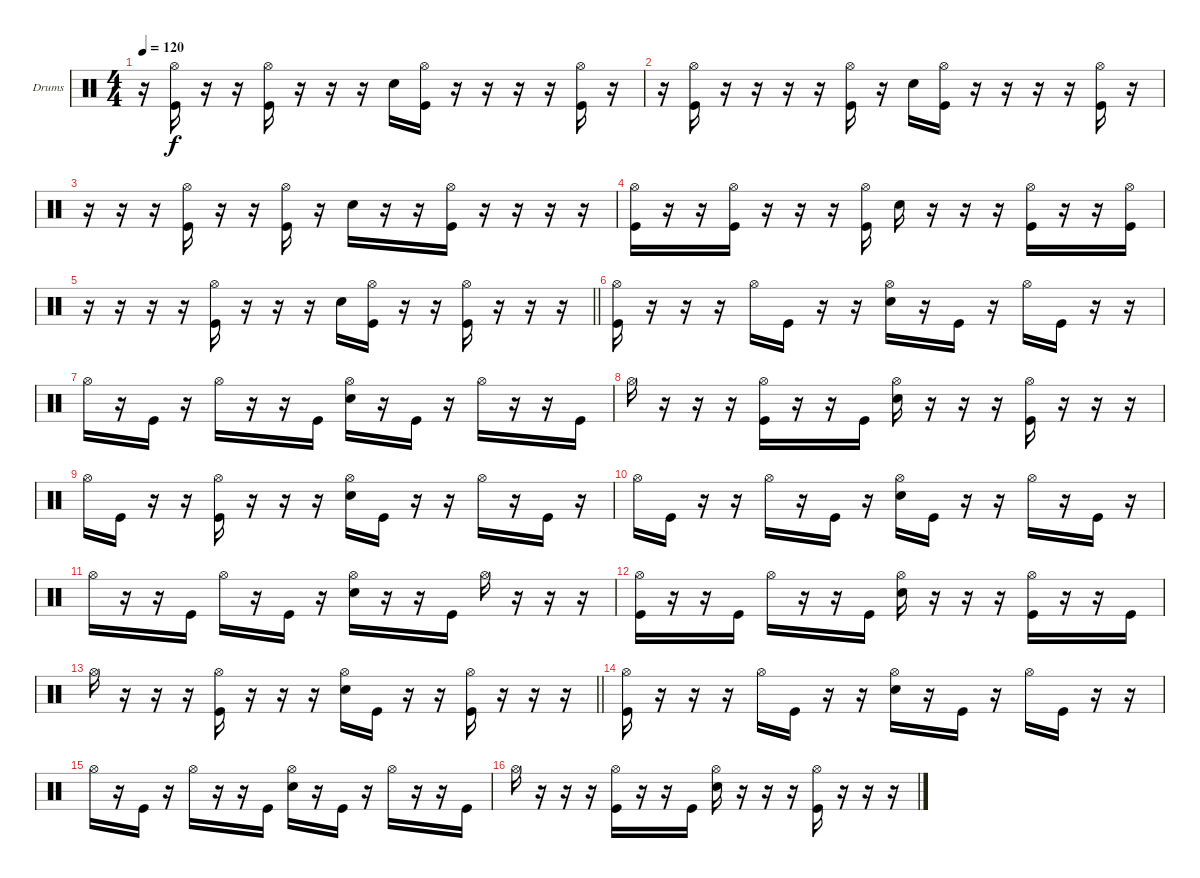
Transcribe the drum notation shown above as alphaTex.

\bracketExtendMode groupsimilarinstruments
\firstSystemTrackNameOrientation horizontal
\otherSystemsTrackNameOrientation horizontal
\track ("Drumkit" "Drums") {instrument percussion}
\staff {score}
\articulation defaults
\ts (4 4)
\tempo 120
\clef neutral
\ks c
r.16{dy f} ("Hi-Hat (open)" "Kick (hit)").16 r.16 r.16 ("Hi-Hat (open)" "Kick (hit)").16 r.16 r.16 r.16 "Snare (hit) 2".16 ("Hi-Hat (open)" "Kick (hit)").16 r.16 r.16 r.16 r.16 ("Hi-Hat (open)" "Kick (hit)").16 r.16 |
r.16 ("Hi-Hat (open)" "Kick (hit)").16 r.16 r.16 r.16 r.16 ("Hi-Hat (open)" "Kick (hit)").16 r.16 "Snare (hit) 2".16 ("Hi-Hat (open)" "Kick (hit)").16 r.16 r.16 r.16 r.16 ("Hi-Hat (open)" "Kick (hit)").16 r.16 |
r.16 r.16 r.16 ("Hi-Hat (open)" "Kick (hit)").16 r.16 r.16 ("Hi-Hat (open)" "Kick (hit)").16 r.16 "Snare (hit) 2".16 r.16 r.16 ("Hi-Hat (open)" "Kick (hit)").16 r.16 r.16 r.16 r.16 |
("Hi-Hat (open)" "Kick (hit)").16 r.16 r.16 ("Hi-Hat (open)" "Kick (hit)").16 r.16 r.16 r.16 ("Hi-Hat (open)" "Kick (hit)").16 "Snare (hit) 2".16 r.16 r.16 r.16 ("Hi-Hat (open)" "Kick (hit)").16 r.16 r.16 ("Hi-Hat (open)" "Kick (hit)").16 |
\barLineRight lightlight
r.16 r.16 r.16 r.16 ("Hi-Hat (open)" "Kick (hit)").16 r.16 r.16 r.16 "Snare (hit) 2".16 ("Hi-Hat (open)" "Kick (hit)").16 r.16 r.16 ("Hi-Hat (open)" "Kick (hit)").16 r.16 r.16 r.16 |
("Hi-Hat (open)" "Kick (hit)").16 r.16 r.16 r.16 "Hi-Hat (open)".16 "Kick (hit)".16 r.16 r.16 ("Hi-Hat (open)" "Snare (hit) 2").16 r.16 "Kick (hit)".16 r.16 "Hi-Hat (open)".16 "Kick (hit)".16 r.16 r.16 |
"Hi-Hat (open)".16 r.16 "Kick (hit)".16 r.16 "Hi-Hat (open)".16 r.16 r.16 "Kick (hit)".16 ("Hi-Hat (open)" "Snare (hit) 2").16 r.16 "Kick (hit)".16 r.16 "Hi-Hat (open)".16 r.16 r.16 "Kick (hit)".16 |
"Hi-Hat (open)".16 r.16 r.16 r.16 ("Hi-Hat (open)" "Kick (hit)").16 r.16 r.16 "Kick (hit)".16 ("Hi-Hat (open)" "Snare (hit) 2").16 r.16 r.16 r.16 ("Hi-Hat (open)" "Kick (hit)").16 r.16 r.16 r.16 |
"Hi-Hat (open)".16 "Kick (hit)".16 r.16 r.16 ("Hi-Hat (open)" "Kick (hit)").16 r.16 r.16 r.16 ("Hi-Hat (open)" "Snare (hit) 2").16 "Kick (hit)".16 r.16 r.16 "Hi-Hat (open)".16 r.16 "Kick (hit)".16 r.16 |
"Hi-Hat (open)".16 "Kick (hit)".16 r.16 r.16 "Hi-Hat (open)".16 r.16 "Kick (hit)".16 r.16 ("Hi-Hat (open)" "Snare (hit) 2").16 "Kick (hit)".16 r.16 r.16 "Hi-Hat (open)".16 r.16 "Kick (hit)".16 r.16 |
"Hi-Hat (open)".16 r.16 r.16 "Kick (hit)".16 "Hi-Hat (open)".16 r.16 "Kick (hit)".16 r.16 ("Hi-Hat (open)" "Snare (hit) 2").16 r.16 r.16 "Kick (hit)".16 "Hi-Hat (open)".16 r.16 r.16 r.16 |
("Hi-Hat (open)" "Kick (hit)").16 r.16 r.16 "Kick (hit)".16 "Hi-Hat (open)".16 r.16 r.16 "Kick (hit)".16 ("Hi-Hat (open)" "Snare (hit) 2").16 r.16 r.16 r.16 ("Hi-Hat (open)" "Kick (hit)").16 r.16 r.16 "Kick (hit)".16 |
\barLineRight lightlight "Hi-Hat (open)".16
r.16 r.16 r.16 ("Hi-Hat (open)" "Kick (hit)").16 r.16 r.16 r.16 ("Hi-Hat (open)" "Snare (hit) 2").16 "Kick (hit)".16 r.16 r.16 ("Hi-Hat (open)" "Kick (hit)").16 r.16 r.16 r.16 |
("Hi-Hat (open)" "Kick (hit)").16 r.16 r.16 r.16 "Hi-Hat (open)".16 "Kick (hit)".16 r.16 r.16 ("Hi-Hat (open)" "Snare (hit) 2").16 r.16 "Kick (hit)".16 r.16 "Hi-Hat (open)".16 "Kick (hit)".16 r.16 r.16 |
"Hi-Hat (open)".16 r.16 "Kick (hit)".16 r.16 "Hi-Hat (open)".16 r.16 r.16 "Kick (hit)".16 ("Hi-Hat (open)" "Snare (hit) 2").16 r.16 "Kick (hit)".16 r.16 "Hi-Hat (open)".16 r.16 r.16 "Kick (hit)".16 |
"Hi-Hat (open)".16 r.16 r.16 r.16 ("Hi-Hat (open)" "Kick (hit)").16 r.16 r.16 "Kick (hit)".16 ("Hi-Hat (open)" "Snare (hit) 2").16 r.16 r.16 r.16 ("Hi-Hat (open)" "Kick (hit)").16 r.16 r.16 r.16
